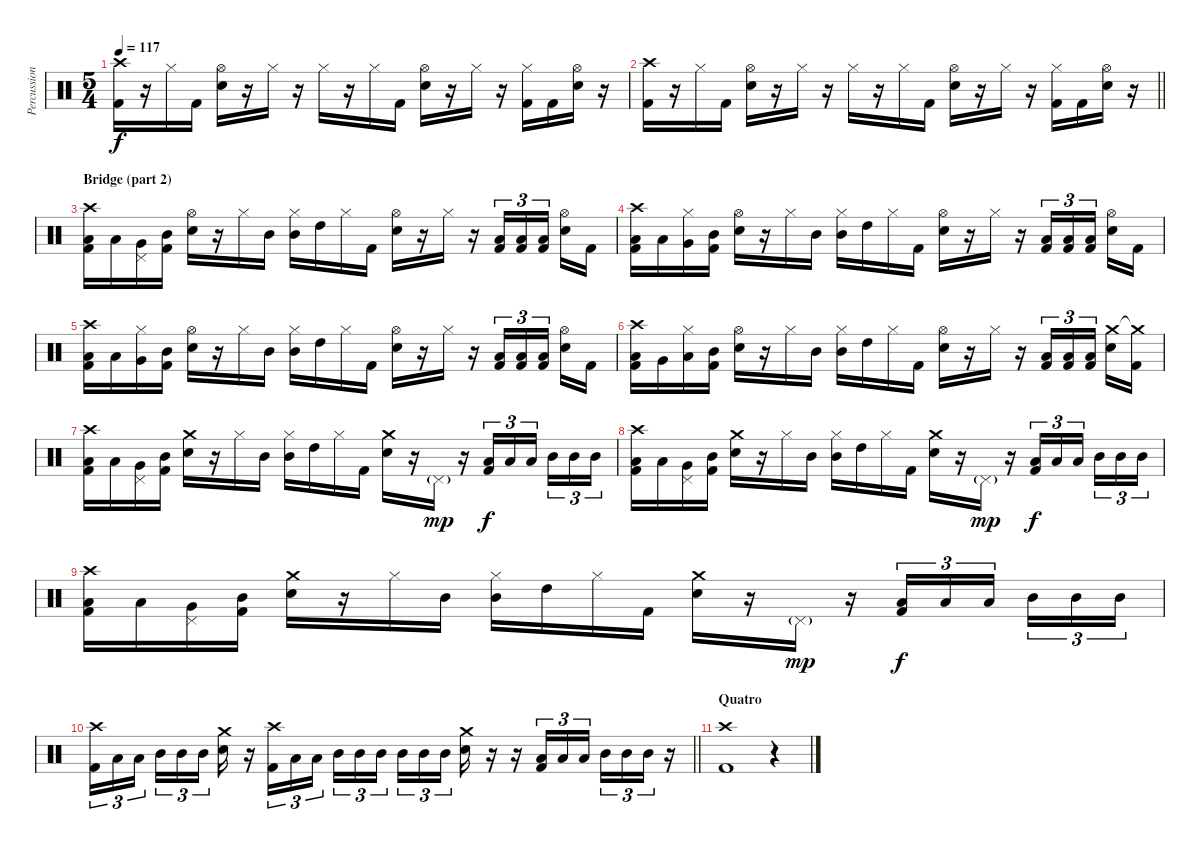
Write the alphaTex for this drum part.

\track ("Percussion" "Percussion") {instrument percussion}
\staff {score}
\articulation defaults
\ts (5 4)
\tempo 117
\clef neutral
\ks c
("Crash high (hit)" "Kick (hit) 2").16{dy f} r.16 "Hi-Hat (closed)".16 "Kick (hit) 2".16 ("Hi-Hat (open)" "Electric Snare (hit)").16 r.16 "Hi-Hat (closed)".16 r.16 "Hi-Hat (closed)".16 r.16 "Hi-Hat (closed)".16 "Kick (hit) 2".16 ("Hi-Hat (open)" "Electric Snare (hit)").16 r.16 "Hi-Hat (closed)".16 r.16 ("Hi-Hat (closed)" "Kick (hit) 2").16 "Kick (hit) 2".16 ("Hi-Hat (open)" "Electric Snare (hit)").16 r.16 |
\barLineRight lightlight
("Crash high (hit)" "Kick (hit) 2").16 r.16 "Hi-Hat (closed)".16 "Kick (hit) 2".16 ("Hi-Hat (open)" "Electric Snare (hit)").16 r.16 "Hi-Hat (closed)".16 r.16 "Hi-Hat (closed)".16 r.16 "Hi-Hat (closed)".16 "Kick (hit) 2".16 ("Hi-Hat (open)" "Electric Snare (hit)").16 r.16 "Hi-Hat (closed)".16 r.16 ("Hi-Hat (closed)" "Kick (hit) 2").16 "Kick (hit) 2".16 ("Hi-Hat (open)" "Electric Snare (hit)").16 r.16 |
\section ("" "Bridge (part 2)")
("Crash high (hit)" "Low Tom (hit)" "Kick (hit) 2").16 "Low Tom (hit)".16 ("Pedal Hi-Hat (hit)" "Very Low Tom (hit)").16 ("Mid Tom (hit)" "Kick (hit) 2").16 ("Hi-Hat (open)" "Electric Snare (hit)").16 r.16 "Hi-Hat (closed)".16 "Mid Tom (hit)".16 ("Hi-Hat (closed)" "Mid Tom (hit)").16 "High Tom (hit)".16 "Hi-Hat (closed)".16 "Kick (hit) 2".16 ("Hi-Hat (open)" "Electric Snare (hit)").16 r.16 "Hi-Hat (closed)".16 r.16 ("Low Tom (hit)" "Kick (hit) 2").16{tu (3 2)} ("Low Tom (hit)" "Kick (hit) 2").16{tu (3 2)} ("Low Tom (hit)" "Kick (hit) 2").16{tu (3 2) beam splitsecondary} ("Hi-Hat (open)" "Electric Snare (hit)").16 "Kick (hit) 2".16 |
("Crash high (hit)" "Low Tom (hit)" "Kick (hit) 2").16 "Low Tom (hit)".16 ("Hi-Hat (closed)" "Very Low Tom (hit)").16 ("Mid Tom (hit)" "Kick (hit) 2").16 ("Hi-Hat (open)" "Electric Snare (hit)").16 r.16 "Hi-Hat (closed)".16 "Mid Tom (hit)".16 ("Hi-Hat (closed)" "Mid Tom (hit)").16 "High Tom (hit)".16 "Hi-Hat (closed)".16 "Kick (hit) 2".16 ("Hi-Hat (open)" "Electric Snare (hit)").16 r.16 "Hi-Hat (closed)".16 r.16 ("Low Tom (hit)" "Kick (hit) 2").16{tu (3 2)} ("Low Tom (hit)" "Kick (hit) 2").16{tu (3 2)} ("Low Tom (hit)" "Kick (hit) 2").16{tu (3 2) beam splitsecondary} ("Hi-Hat (open)" "Electric Snare (hit)").16 "Kick (hit) 2".16 |
("Crash high (hit)" "Low Tom (hit)" "Kick (hit) 2").16 "Low Tom (hit)".16 ("Hi-Hat (closed)" "Very Low Tom (hit)").16 ("Mid Tom (hit)" "Kick (hit) 2").16 ("Hi-Hat (open)" "Electric Snare (hit)").16 r.16 "Hi-Hat (closed)".16 "Mid Tom (hit)".16 ("Hi-Hat (closed)" "Mid Tom (hit)").16 "High Tom (hit)".16 "Hi-Hat (closed)".16 "Kick (hit) 2".16 ("Hi-Hat (open)" "Electric Snare (hit)").16 r.16 "Hi-Hat (closed)".16 r.16 ("Low Tom (hit)" "Kick (hit) 2").16{tu (3 2)} ("Low Tom (hit)" "Kick (hit) 2").16{tu (3 2)} ("Low Tom (hit)" "Kick (hit) 2").16{tu (3 2) beam splitsecondary} ("Hi-Hat (open)" "Electric Snare (hit)").16 "Kick (hit) 2".16 |
("Crash high (hit)" "Low Tom (hit)" "Kick (hit) 2").16 "Very Low Tom (hit)".16 ("Hi-Hat (closed)" "Low Tom (hit)").16 ("Mid Tom (hit)" "Kick (hit) 2").16 ("Hi-Hat (open)" "Electric Snare (hit)").16 r.16 "Hi-Hat (closed)".16 "Mid Tom (hit)".16 ("Hi-Hat (closed)" "Mid Tom (hit)").16 "High Tom (hit)".16 "Hi-Hat (closed)".16 "Kick (hit) 2".16 ("Hi-Hat (open)" "Electric Snare (hit)").16 r.16 "Hi-Hat (closed)".16 r.16 ("Low Tom (hit)" "Kick (hit) 2").16{tu (3 2)} ("Low Tom (hit)" "Kick (hit) 2").16{tu (3 2)} ("Low Tom (hit)" "Kick (hit) 2").16{tu (3 2) beam splitsecondary} ("Crash medium (hit)" "Electric Snare (hit)").16 ("Crash medium (hit)"{t} "Kick (hit) 2").16 |
("Crash high (hit)" "Low Tom (hit)" "Kick (hit) 2").16 "Low Tom (hit)".16 ("Pedal Hi-Hat (hit)" "Very Low Tom (hit)").16 ("Mid Tom (hit)" "Kick (hit) 2").16 ("Crash medium (hit)" "Electric Snare (hit)").16 r.16 "Hi-Hat (closed)".16 "Mid Tom (hit)".16 ("Hi-Hat (closed)" "Mid Tom (hit)").16 "High Tom (hit)".16 "Hi-Hat (closed)".16 "Kick (hit) 2".16 ("Crash medium (hit)" "Electric Snare (hit)").16 r.16 "Pedal Hi-Hat (hit)"{g}.16{dy mp} r.16 ("Low Tom (hit)" "Kick (hit) 2").16{tu (3 2) dy f} "Low Tom (hit)".16{tu (3 2)} "Low Tom (hit)".16{tu (3 2) beam splitsecondary} "Mid Tom (hit)".16{tu (3 2)} "Mid Tom (hit)".16{tu (3 2)} "Mid Tom (hit)".16{tu (3 2)} |
("Crash high (hit)" "Low Tom (hit)" "Kick (hit) 2").16 "Low Tom (hit)".16 ("Pedal Hi-Hat (hit)" "Very Low Tom (hit)").16 ("Mid Tom (hit)" "Kick (hit) 2").16 ("Crash medium (hit)" "Electric Snare (hit)").16 r.16 "Hi-Hat (closed)".16 "Mid Tom (hit)".16 ("Hi-Hat (closed)" "Mid Tom (hit)").16 "High Tom (hit)".16 "Hi-Hat (closed)".16 "Kick (hit) 2".16 ("Crash medium (hit)" "Electric Snare (hit)").16 r.16 "Pedal Hi-Hat (hit)"{g}.16{dy mp} r.16 ("Low Tom (hit)" "Kick (hit) 2").16{tu (3 2) dy f} "Low Tom (hit)".16{tu (3 2)} "Low Tom (hit)".16{tu (3 2) beam splitsecondary} "Mid Tom (hit)".16{tu (3 2)} "Mid Tom (hit)".16{tu (3 2)} "Mid Tom (hit)".16{tu (3 2)} |
("Crash high (hit)" "Low Tom (hit)" "Kick (hit) 2").16 "Low Tom (hit)".16 ("Pedal Hi-Hat (hit)" "Very Low Tom (hit)").16 ("Mid Tom (hit)" "Kick (hit) 2").16 ("Crash medium (hit)" "Electric Snare (hit)").16 r.16 "Hi-Hat (closed)".16 "Mid Tom (hit)".16 ("Hi-Hat (closed)" "Mid Tom (hit)").16 "High Tom (hit)".16 "Hi-Hat (closed)".16 "Kick (hit) 2".16 ("Crash medium (hit)" "Electric Snare (hit)").16 r.16 "Pedal Hi-Hat (hit)"{g}.16{dy mp} r.16 ("Low Tom (hit)" "Kick (hit) 2").16{tu (3 2) dy f} "Low Tom (hit)".16{tu (3 2)} "Low Tom (hit)".16{tu (3 2) beam splitsecondary} "Mid Tom (hit)".16{tu (3 2)} "Mid Tom (hit)".16{tu (3 2)} "Mid Tom (hit)".16{tu (3 2)} |
\barLineRight lightlight
("Crash high (hit)" "Kick (hit) 2").16{tu (3 2)} "Low Tom (hit)".16{tu (3 2)} "Low Tom (hit)".16{tu (3 2) beam splitsecondary} "Mid Tom (hit)".16{tu (3 2)} "Mid Tom (hit)".16{tu (3 2)} "Mid Tom (hit)".16{tu (3 2)} ("Crash medium (hit)" "Electric Snare (hit)").16 r.16 ("Crash high (hit)" "Kick (hit) 2").16{tu (3 2)} "Low Tom (hit)".16{tu (3 2)} "Low Tom (hit)".16{tu (3 2)} "Mid Tom (hit)".16{tu (3 2)} "Mid Tom (hit)".16{tu (3 2)} "Mid Tom (hit)".16{tu (3 2) beam splitsecondary} "Mid Tom (hit)".16{tu (3 2)} "Mid Tom (hit)".16{tu (3 2)} "Mid Tom (hit)".16{tu (3 2)} ("Crash medium (hit)" "Electric Snare (hit)").16 r.16 r.16 ("Low Tom (hit)" "Kick (hit) 2").16{tu (3 2)} "Low Tom (hit)".16{tu (3 2)} "Low Tom (hit)".16{tu (3 2) beam splitsecondary} "Mid Tom (hit)".16{tu (3 2)} "Mid Tom (hit)".16{tu (3 2)} "Mid Tom (hit)".16{tu (3 2)} r.16 |
\section ("" "Quatro")
("Crash high (hit)" "Kick (hit) 2").1 r.4
